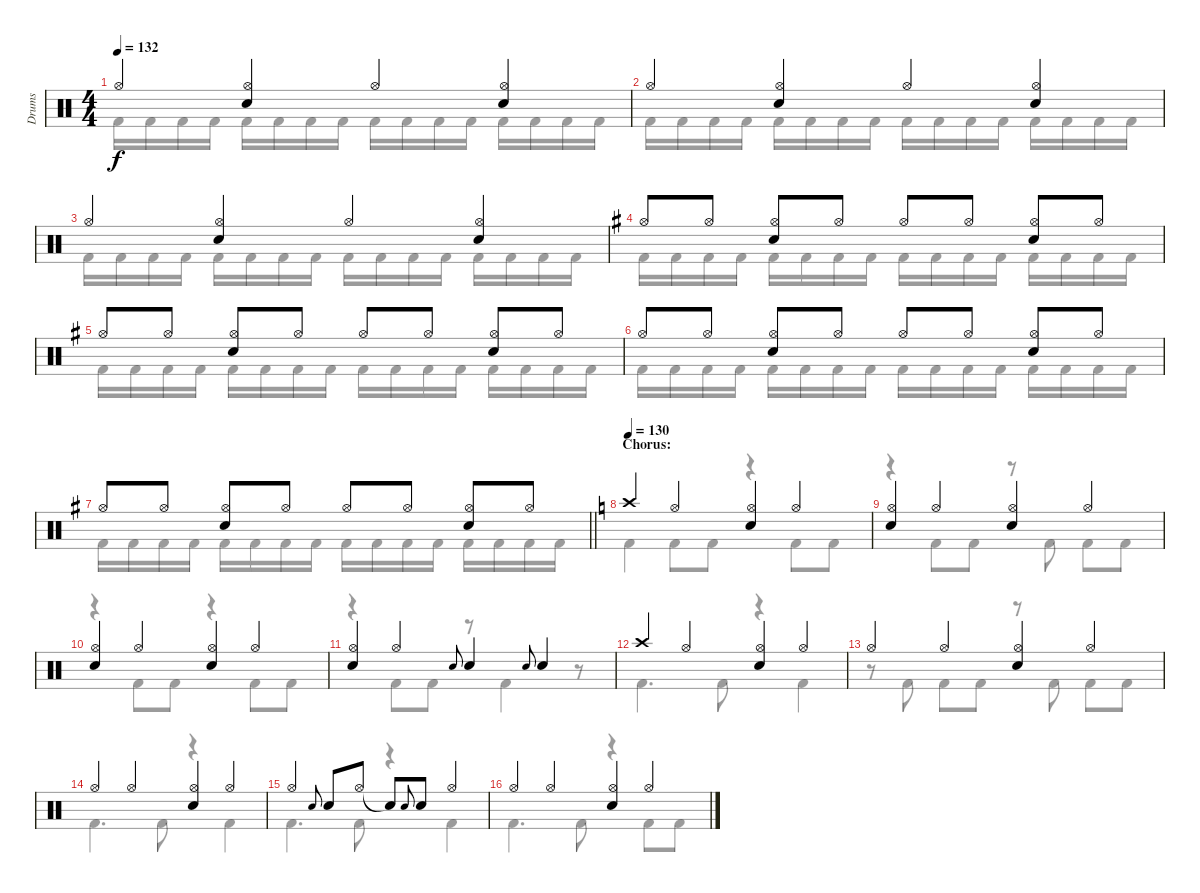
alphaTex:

\track ("Drums" "Drums") {instrument percussion}
\staff {score}
\articulation defaults
\voice
\ts (4 4)
\tempo 132
\clef neutral
\ks c "Hi-Hat (open)".4{dy f}
("Hi-Hat (open)" "Electric Snare (hit)").4 "Hi-Hat (open)".4 ("Hi-Hat (open)" "Electric Snare (hit)").4 |
"Hi-Hat (open)".4 ("Hi-Hat (open)" "Snare (hit)").4 "Hi-Hat (open)".4 ("Hi-Hat (open)" "Electric Snare (hit)").4 |
"Hi-Hat (open)".4 ("Hi-Hat (open)" "Electric Snare (hit)").4 "Hi-Hat (open)".4 ("Hi-Hat (open)" "Electric Snare (hit)").4 |
\ks g "Hi-Hat (open)".8 "Hi-Hat (open)".8
("Hi-Hat (open)" "Electric Snare (hit)").8 "Hi-Hat (open)".8 "Hi-Hat (open)".8 "Hi-Hat (open)".8 ("Hi-Hat (open)" "Electric Snare (hit)").8 "Hi-Hat (open)".8 |
"Hi-Hat (open)".8 "Hi-Hat (open)".8 ("Hi-Hat (open)" "Electric Snare (hit)").8 "Hi-Hat (open)".8 "Hi-Hat (open)".8 "Hi-Hat (open)".8 ("Hi-Hat (open)" "Electric Snare (hit)").8 "Hi-Hat (open)".8 |
"Hi-Hat (open)".8 "Hi-Hat (open)".8 ("Hi-Hat (open)" "Electric Snare (hit)").8 "Hi-Hat (open)".8 "Hi-Hat (open)".8 "Hi-Hat (open)".8 ("Hi-Hat (open)" "Electric Snare (hit)").8 "Hi-Hat (open)".8 |
\barLineRight lightlight "Hi-Hat (open)".8 "Hi-Hat (open)".8
("Hi-Hat (open)" "Electric Snare (hit)").8 "Hi-Hat (open)".8 "Hi-Hat (open)".8 "Hi-Hat (open)".8 ("Hi-Hat (open)" "Electric Snare (hit)").8 "Hi-Hat (open)".8 |
\section ("" "Chorus:")
\tempo 130
\ks c "Crash high (hit)".4 "Hi-Hat (open)".4
("Hi-Hat (open)" "Electric Snare (hit)").4 "Hi-Hat (open)".4 |
("Hi-Hat (open)" "Electric Snare (hit)").4 "Hi-Hat (open)".4 ("Hi-Hat (open)" "Electric Snare (hit)").4 "Hi-Hat (open)".4 |
("Hi-Hat (open)" "Electric Snare (hit)").4 "Hi-Hat (open)".4 ("Hi-Hat (open)" "Electric Snare (hit)").4 "Hi-Hat (open)".4 |
("Hi-Hat (open)" "Electric Snare (hit)").4 "Hi-Hat (open)".4 "Electric Snare (hit)".8{gr onbeat} "Electric Snare (hit)".4 "Electric Snare (hit)".8{gr onbeat} "Electric Snare (hit)".4 |
"Crash high (hit)".4 "Hi-Hat (open)".4 ("Hi-Hat (open)" "Electric Snare (hit)").4 "Hi-Hat (open)".4 |
"Hi-Hat (open)".4 "Hi-Hat (open)".4 ("Hi-Hat (open)" "Electric Snare (hit)").4 "Hi-Hat (open)".4 |
"Hi-Hat (open)".4 "Hi-Hat (open)".4 ("Hi-Hat (open)" "Electric Snare (hit)").4 "Hi-Hat (open)".4 |
"Hi-Hat (open)".4 "Electric Snare (hit)".8{gr onbeat} "Electric Snare (hit)".8 "Hi-Hat (open)".8 "Snare (hit)"{t}.8 "Electric Snare (hit)".8{gr onbeat} "Electric Snare (hit)".8 "Hi-Hat (open)".4 |
"Hi-Hat (open)".4 "Hi-Hat (open)".4 ("Hi-Hat (open)" "Electric Snare (hit)").4 "Hi-Hat (open)".4
\voice
\clef neutral
\ottava regular
\simile none
\ks c "Kick (hit) 2".16{dy f} "Kick (hit) 2".16 "Kick (hit) 2".16 "Kick (hit) 2".16 "Kick (hit) 2".16 "Kick (hit) 2".16 "Kick (hit) 2".16 "Kick (hit) 2".16 "Kick (hit) 2".16 "Kick (hit) 2".16 "Kick (hit) 2".16 "Kick (hit) 2".16 "Kick (hit) 2".16 "Kick (hit) 2".16 "Kick (hit) 2".16 "Kick (hit) 2".16
|
"Kick (hit) 2".16 "Kick (hit) 2".16 "Kick (hit) 2".16 "Kick (hit) 2".16 "Kick (hit) 2".16 "Kick (hit) 2".16 "Kick (hit) 2".16 "Kick (hit) 2".16 "Kick (hit) 2".16 "Kick (hit) 2".16 "Kick (hit) 2".16 "Kick (hit) 2".16 "Kick (hit) 2".16 "Kick (hit) 2".16 "Kick (hit) 2".16 "Kick (hit) 2".16 |
"Kick (hit) 2".16 "Kick (hit) 2".16 "Kick (hit) 2".16 "Kick (hit) 2".16 "Kick (hit) 2".16 "Kick (hit) 2".16 "Kick (hit) 2".16 "Kick (hit) 2".16 "Kick (hit) 2".16 "Kick (hit) 2".16 "Kick (hit) 2".16 "Kick (hit) 2".16 "Kick (hit) 2".16 "Kick (hit) 2".16 "Kick (hit) 2".16 "Kick (hit) 2".16 |
\ks g "Kick (hit) 2".16 "Kick (hit) 2".16 "Kick (hit) 2".16 "Kick (hit) 2".16 "Kick (hit) 2".16 "Kick (hit) 2".16 "Kick (hit) 2".16 "Kick (hit) 2".16 "Kick (hit) 2".16 "Kick (hit) 2".16 "Kick (hit) 2".16 "Kick (hit) 2".16 "Kick (hit) 2".16 "Kick (hit) 2".16 "Kick (hit) 2".16 "Kick (hit) 2".16
|
"Kick (hit) 2".16 "Kick (hit) 2".16 "Kick (hit) 2".16 "Kick (hit) 2".16 "Kick (hit) 2".16 "Kick (hit) 2".16 "Kick (hit) 2".16 "Kick (hit) 2".16 "Kick (hit) 2".16 "Kick (hit) 2".16 "Kick (hit) 2".16 "Kick (hit) 2".16 "Kick (hit) 2".16 "Kick (hit) 2".16 "Kick (hit) 2".16 "Kick (hit) 2".16 |
"Kick (hit) 2".16 "Kick (hit) 2".16 "Kick (hit) 2".16 "Kick (hit) 2".16 "Kick (hit) 2".16 "Kick (hit) 2".16 "Kick (hit) 2".16 "Kick (hit) 2".16 "Kick (hit) 2".16 "Kick (hit) 2".16 "Kick (hit) 2".16 "Kick (hit) 2".16 "Kick (hit) 2".16 "Kick (hit) 2".16 "Kick (hit) 2".16 "Kick (hit) 2".16 |
\barLineRight lightlight "Kick (hit) 2".16 "Kick (hit) 2".16 "Kick (hit) 2".16 "Kick (hit) 2".16 "Kick (hit) 2".16 "Kick (hit) 2".16 "Kick (hit) 2".16 "Kick (hit) 2".16 "Kick (hit) 2".16 "Kick (hit) 2".16 "Kick (hit) 2".16 "Kick (hit) 2".16 "Kick (hit) 2".16 "Kick (hit) 2".16 "Kick (hit) 2".16 "Kick (hit) 2".16
|
\ks c "Kick (hit) 2".4 "Kick (hit) 2".8 "Kick (hit) 2".8
r.4 "Kick (hit) 2".8 "Kick (hit) 2".8 |
r.4 "Kick (hit) 2".8 "Kick (hit) 2".8 r.8 "Kick (hit) 2".8 "Kick (hit) 2".8 "Kick (hit) 2".8 |
r.4 "Kick (hit) 2".8 "Kick (hit) 2".8 r.4 "Kick (hit) 2".8 "Kick (hit) 2".8 |
r.4 "Kick (hit) 2".8 "Kick (hit) 2".8 r.8 "Kick (hit) 2".4 r.8 |
"Kick (hit) 2".4{d} "Kick (hit) 2".8 r.4 "Kick (hit) 2".4 |
r.8 "Kick (hit) 2".8 "Kick (hit) 2".8 "Kick (hit) 2".8 r.8 "Kick (hit) 2".8 "Kick (hit) 2".8 "Kick (hit) 2".8 |
"Kick (hit) 2".4{d} "Kick (hit) 2".8 r.4 "Kick (hit) 2".4 |
"Kick (hit) 2".4{d} "Kick (hit) 2".8 r.4 "Kick (hit) 2".4 |
"Kick (hit) 2".4{d} "Kick (hit) 2".8 r.4 "Kick (hit) 2".8{beam merge} "Kick (hit) 2".8
